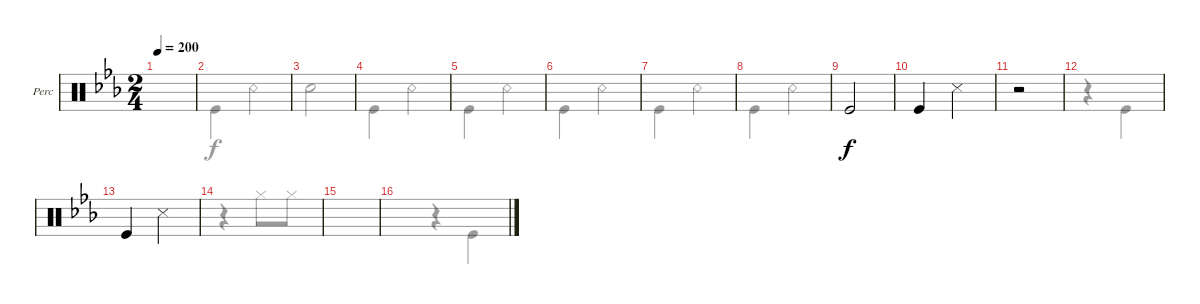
\defaultSystemsLayout 4
\bracketExtendMode groupsimilarinstruments
\firstSystemTrackNameOrientation horizontal
\otherSystemsTrackNameOrientation horizontal
\track ("Body Percussion" "Perc") {instrument percussion}
\staff {score}
\articulation defaults
\voice
\ts (2 4)
\tempo 200
\clef neutral
\ks cminor
|
|
|
|
|
|
|
|
"Kick (hit)".2 |
"Kick (hit)".4 "Snare (side stick) 3".4 |
r.2 |
|
"Kick (hit)".4 "Snare (side stick) 3".4 |
\scale
0.362903 |
\scale
0.199732 |
\scale
0.21295
\voice
\clef neutral
\ottava regular
\simile none
\ks cminor
|
"Kick (hit)".4 "Snare (rim shot)".4 |
"Snare (hit) 2".2 |
"Kick (hit)".4 "Snare (rim shot)".4 |
"Kick (hit)".4 "Snare (rim shot)".4 |
"Kick (hit)".4 "Snare (rim shot)".4 |
"Kick (hit)".4 "Snare (rim shot)".4 |
"Kick (hit)".4 "Snare (rim shot)".4 |
|
|
|
r.4 "Kick (hit)".4 |
|
r.4 "Hi-Hat (closed)".8 "Hi-Hat (closed)".8 |
|
r.4 "Kick (hit)".4
